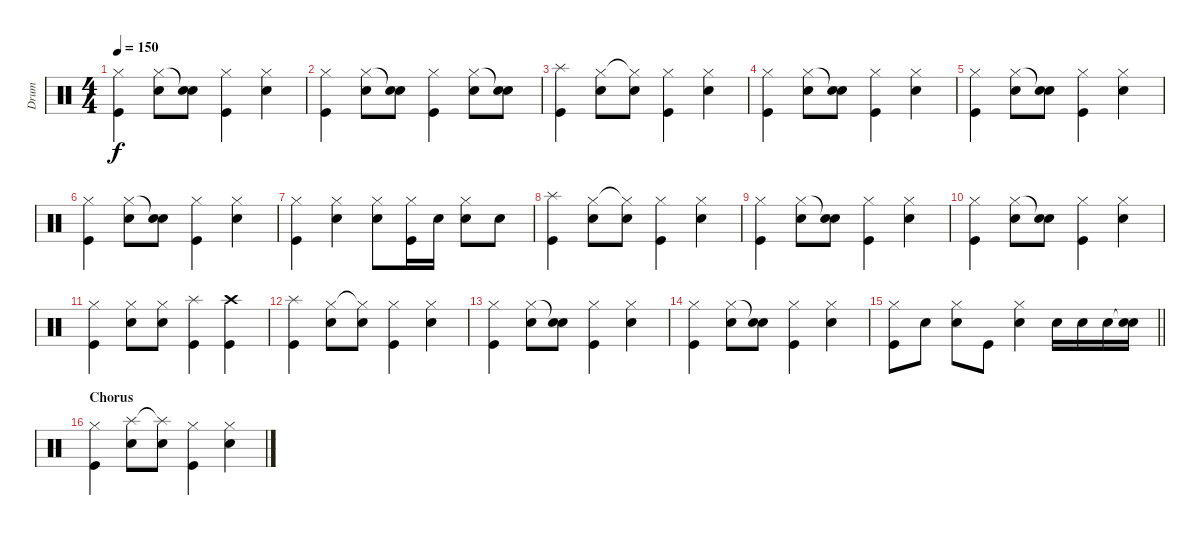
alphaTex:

\track ("Drum" "Drum") {instrument percussion}
\staff {score}
\articulation defaults
\ts (4 4)
\tempo 150
\clef neutral
\ks c
("Hi-Hat (closed)" "Kick (hit)").4{dy f} ("Hi-Hat (closed)" "Snare (hit) 2").8 ("Snare (hit)"{t} "Snare (hit) 2").8 ("Hi-Hat (closed)" "Kick (hit)").4 ("Hi-Hat (closed)" "Snare (hit) 2").4 |
("Hi-Hat (closed)" "Kick (hit)").4 ("Hi-Hat (closed)" "Snare (hit) 2").8 ("Snare (hit)"{t} "Snare (hit) 2").8 ("Hi-Hat (closed)" "Kick (hit)").4 ("Hi-Hat (closed)" "Snare (hit) 2").8 ("Snare (hit)"{t} "Snare (hit) 2").8 |
("Splash (hit)" "Kick (hit)").4 ("Hi-Hat (closed)" "Snare (hit) 2").8 ("Hi-Hat (closed)"{t} "Snare (hit) 2").8 ("Hi-Hat (closed)" "Kick (hit)").4 ("Hi-Hat (closed)" "Snare (hit) 2").4 |
("Hi-Hat (closed)" "Kick (hit)").4 ("Hi-Hat (closed)" "Snare (hit) 2").8 ("Snare (hit)"{t} "Snare (hit) 2").8 ("Hi-Hat (closed)" "Kick (hit)").4 ("Hi-Hat (closed)" "Snare (hit) 2").4 |
("Hi-Hat (closed)" "Kick (hit)").4 ("Hi-Hat (closed)" "Snare (hit) 2").8 ("Snare (hit)"{t} "Snare (hit) 2").8 ("Hi-Hat (closed)" "Kick (hit)").4 ("Hi-Hat (closed)" "Snare (hit) 2").4 |
("Hi-Hat (closed)" "Kick (hit)").4 ("Hi-Hat (closed)" "Snare (hit) 2").8 ("Snare (hit)"{t} "Snare (hit) 2").8 ("Hi-Hat (closed)" "Kick (hit)").4 ("Hi-Hat (closed)" "Snare (hit) 2").4 |
("Hi-Hat (closed)" "Kick (hit)").4 ("Hi-Hat (closed)" "Snare (hit) 2").4 ("Hi-Hat (closed)" "Snare (hit) 2").8 ("Hi-Hat (closed)" "Kick (hit)").16 "Snare (hit) 2".16 ("Hi-Hat (closed)" "Snare (hit) 2").8 "Snare (hit) 2".8 |
("Splash (hit)" "Kick (hit)").4 ("Hi-Hat (closed)" "Snare (hit) 2").8 ("Hi-Hat (closed)"{t} "Snare (hit) 2").8 ("Hi-Hat (closed)" "Kick (hit)").4 ("Hi-Hat (closed)" "Snare (hit) 2").4 |
("Hi-Hat (closed)" "Kick (hit)").4 ("Hi-Hat (closed)" "Snare (hit) 2").8 ("Snare (hit)"{t} "Snare (hit) 2").8 ("Hi-Hat (closed)" "Kick (hit)").4 ("Hi-Hat (closed)" "Snare (hit) 2").4 |
("Hi-Hat (closed)" "Kick (hit)").4 ("Hi-Hat (closed)" "Snare (hit) 2").8 ("Snare (hit)"{t} "Snare (hit) 2").8 ("Hi-Hat (closed)" "Kick (hit)").4 ("Hi-Hat (closed)" "Snare (hit) 2").4 |
("Hi-Hat (closed)" "Kick (hit)").4 ("Hi-Hat (closed)" "Snare (hit) 2").8 ("Hi-Hat (closed)" "Snare (hit) 2").8 ("Splash (hit)" "Kick (hit)").4 ("Crash high (hit)" "Kick (hit)").4 |
("Splash (hit)" "Kick (hit)").4 ("Hi-Hat (closed)" "Snare (hit) 2").8 ("Hi-Hat (closed)"{t} "Snare (hit) 2").8 ("Hi-Hat (closed)" "Kick (hit)").4 ("Hi-Hat (closed)" "Snare (hit) 2").4 |
("Hi-Hat (closed)" "Kick (hit)").4 ("Hi-Hat (closed)" "Snare (hit) 2").8 ("Snare (hit)"{t} "Snare (hit) 2").8 ("Hi-Hat (closed)" "Kick (hit)").4 ("Hi-Hat (closed)" "Snare (hit) 2").4 |
("Hi-Hat (closed)" "Kick (hit)").4 ("Hi-Hat (closed)" "Snare (hit) 2").8 ("Snare (hit)"{t} "Snare (hit) 2").8 ("Hi-Hat (closed)" "Kick (hit)").4 ("Hi-Hat (closed)" "Snare (hit) 2").4 |
\barLineRight lightlight
("Hi-Hat (closed)" "Kick (hit)").8 "Snare (hit) 2".8 ("Hi-Hat (closed)" "Snare (hit) 2").8 "Kick (hit)".8 ("Hi-Hat (closed)" "Snare (hit) 2").4 "Snare (hit) 2".16 "Snare (hit) 2".16 "Snare (hit) 2".16 ("Snare (hit)"{t} "Snare (hit) 2").16 |
\section ("" "Chorus")
("Hi-Hat (closed)" "Kick (hit)").4 ("Splash (hit)" "Snare (hit) 2").8 ("Splash (hit)"{t} "Snare (hit) 2").8 ("Hi-Hat (closed)" "Kick (hit)").4 ("Hi-Hat (closed)" "Snare (hit) 2").4
